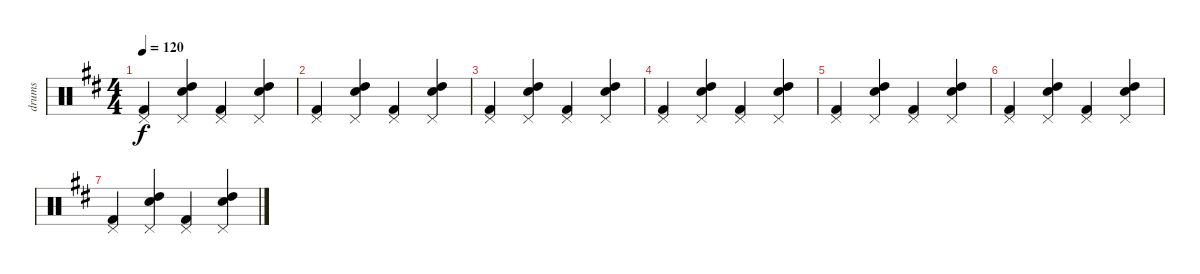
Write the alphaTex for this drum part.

\track ("drums" "drums") {instrument percussion}
\staff {score}
\articulation defaults
\ts (4 4)
\tempo 120
\clef neutral
\ks d
("Pedal Hi-Hat (hit)" "Kick (hit) 2").4{dy f} ("Pedal Hi-Hat (hit)" "High Tom (hit)" "Electric Snare (hit)").4 ("Kick (hit) 2" "Pedal Hi-Hat (hit)").4 ("Pedal Hi-Hat (hit)" "High Tom (hit)" "Electric Snare (hit)").4 |
("Pedal Hi-Hat (hit)" "Kick (hit) 2").4 ("Pedal Hi-Hat (hit)" "High Tom (hit)" "Electric Snare (hit)").4 ("Kick (hit) 2" "Pedal Hi-Hat (hit)").4 ("Pedal Hi-Hat (hit)" "High Tom (hit)" "Electric Snare (hit)").4 |
("Pedal Hi-Hat (hit)" "Kick (hit) 2").4 ("Pedal Hi-Hat (hit)" "High Tom (hit)" "Electric Snare (hit)").4 ("Kick (hit) 2" "Pedal Hi-Hat (hit)").4 ("Pedal Hi-Hat (hit)" "High Tom (hit)" "Electric Snare (hit)").4 |
("Pedal Hi-Hat (hit)" "Kick (hit) 2").4 ("Pedal Hi-Hat (hit)" "High Tom (hit)" "Electric Snare (hit)").4 ("Kick (hit) 2" "Pedal Hi-Hat (hit)").4 ("Pedal Hi-Hat (hit)" "High Tom (hit)" "Electric Snare (hit)").4 |
("Pedal Hi-Hat (hit)" "Kick (hit) 2").4 ("Pedal Hi-Hat (hit)" "High Tom (hit)" "Electric Snare (hit)").4 ("Kick (hit) 2" "Pedal Hi-Hat (hit)").4 ("Pedal Hi-Hat (hit)" "High Tom (hit)" "Electric Snare (hit)").4 |
("Pedal Hi-Hat (hit)" "Kick (hit) 2").4 ("Pedal Hi-Hat (hit)" "High Tom (hit)" "Electric Snare (hit)").4 ("Kick (hit) 2" "Pedal Hi-Hat (hit)").4 ("Pedal Hi-Hat (hit)" "High Tom (hit)" "Electric Snare (hit)").4 |
("Pedal Hi-Hat (hit)" "Kick (hit) 2").4 ("Pedal Hi-Hat (hit)" "High Tom (hit)" "Electric Snare (hit)").4 ("Kick (hit) 2" "Pedal Hi-Hat (hit)").4 ("Pedal Hi-Hat (hit)" "High Tom (hit)" "Electric Snare (hit)").4
